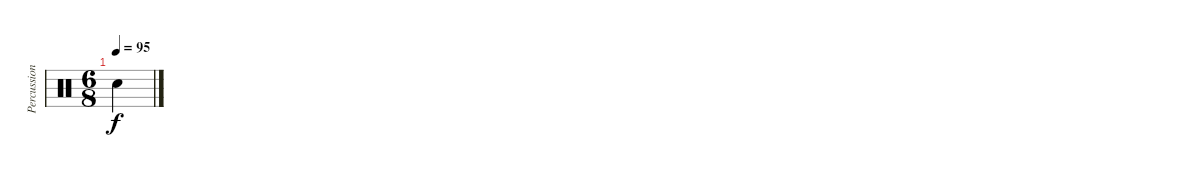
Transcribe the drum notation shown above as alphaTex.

\track ("Percussion" "Percussion") {instrument percussion}
\staff {score}
\articulation defaults
\ts (6 8)
\tempo 95
\clef neutral
\ks c "Snare (hit)"{t}.4{dy f}
